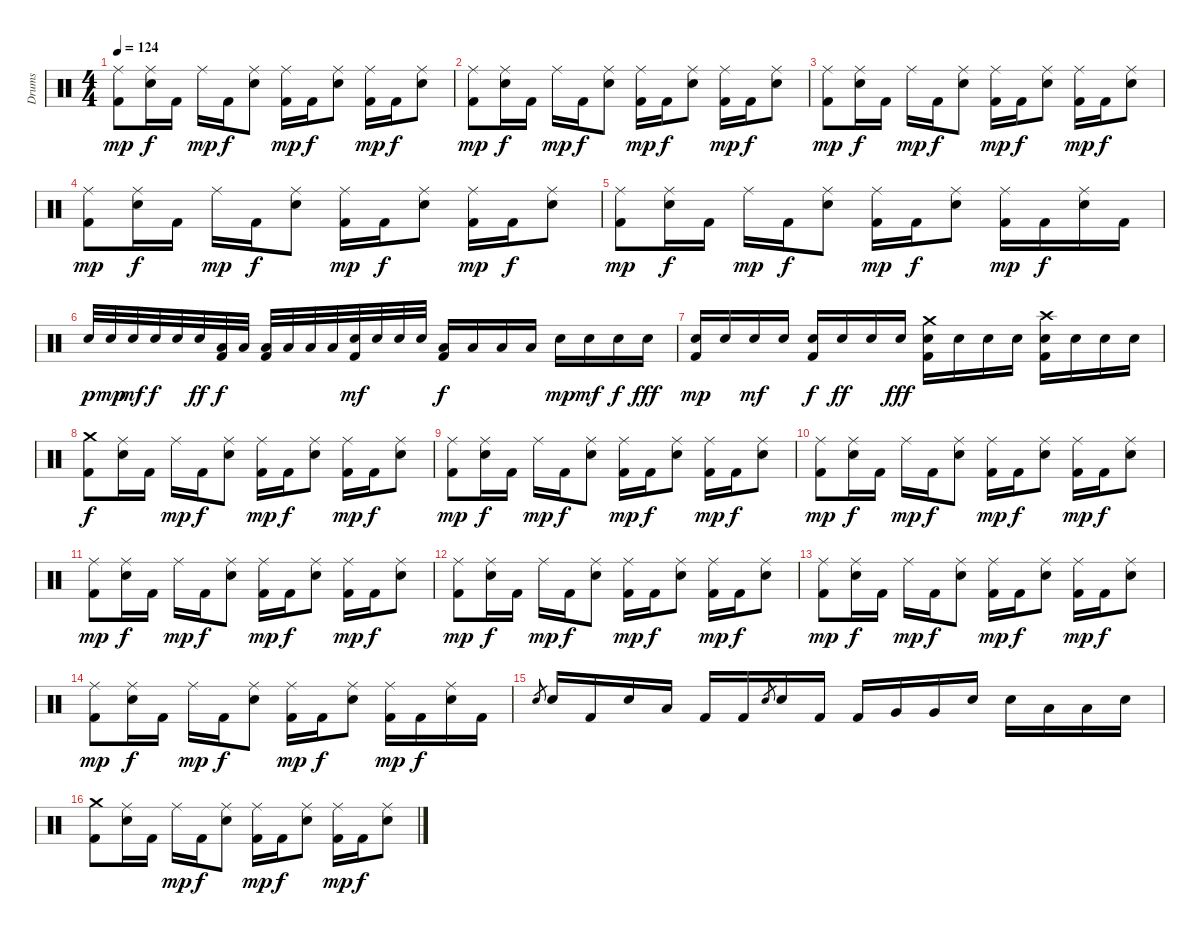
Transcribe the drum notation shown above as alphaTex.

\track ("Drums" "Drums") {instrument percussion}
\staff {score}
\articulation defaults
\ts (4 4)
\tempo 124
\clef neutral
\ks c
("Ride (middle)" "Kick (hit) 2").8{dy mp} ("Ride (middle)" "Snare (hit) 2").16{dy f} "Kick (hit) 2".16 "Ride (middle)".16{dy mp} "Kick (hit) 2".16{dy f} ("Ride (middle)" "Snare (hit) 2").8 ("Ride (middle)" "Kick (hit) 2").16{dy mp} "Kick (hit) 2".16{dy f} ("Ride (middle)" "Snare (hit) 2").8 ("Ride (middle)" "Kick (hit) 2").16{dy mp} "Kick (hit) 2".16{dy f} ("Ride (middle)" "Snare (hit) 2").8 |
("Ride (middle)" "Kick (hit) 2").8{dy mp} ("Ride (middle)" "Snare (hit) 2").16{dy f} "Kick (hit) 2".16 "Ride (middle)".16{dy mp} "Kick (hit) 2".16{dy f} ("Ride (middle)" "Snare (hit) 2").8 ("Ride (middle)" "Kick (hit) 2").16{dy mp} "Kick (hit) 2".16{dy f} ("Ride (middle)" "Snare (hit) 2").8 ("Ride (middle)" "Kick (hit) 2").16{dy mp} "Kick (hit) 2".16{dy f} ("Ride (middle)" "Snare (hit) 2").8 |
("Ride (middle)" "Kick (hit) 2").8{dy mp} ("Ride (middle)" "Snare (hit) 2").16{dy f} "Kick (hit) 2".16 "Ride (middle)".16{dy mp} "Kick (hit) 2".16{dy f} ("Ride (middle)" "Snare (hit) 2").8 ("Ride (middle)" "Kick (hit) 2").16{dy mp} "Kick (hit) 2".16{dy f} ("Ride (middle)" "Snare (hit) 2").8 ("Ride (middle)" "Kick (hit) 2").16{dy mp} "Kick (hit) 2".16{dy f} ("Ride (middle)" "Snare (hit) 2").8 |
("Ride (middle)" "Kick (hit) 2").8{dy mp} ("Ride (middle)" "Snare (hit) 2").16{dy f} "Kick (hit) 2".16 "Ride (middle)".16{dy mp} "Kick (hit) 2".16{dy f} ("Ride (middle)" "Snare (hit) 2").8 ("Ride (middle)" "Kick (hit) 2").16{dy mp} "Kick (hit) 2".16{dy f} ("Ride (middle)" "Snare (hit) 2").8 ("Ride (middle)" "Kick (hit) 2").16{dy mp} "Kick (hit) 2".16{dy f} ("Ride (middle)" "Snare (hit) 2").8 |
("Ride (middle)" "Kick (hit) 2").8{dy mp} ("Ride (middle)" "Snare (hit) 2").16{dy f} "Kick (hit) 2".16 "Ride (middle)".16{dy mp} "Kick (hit) 2".16{dy f} ("Ride (middle)" "Snare (hit) 2").8 ("Ride (middle)" "Kick (hit) 2").16{dy mp} "Kick (hit) 2".16{dy f} ("Ride (middle)" "Snare (hit) 2").8 ("Ride (middle)" "Kick (hit) 2").16{dy mp} "Kick (hit) 2".16{dy f} ("Ride (middle)" "Snare (hit) 2").16 "Kick (hit) 2".16 |
"Snare (hit) 2".32{dy p} "Snare (hit) 2".32{dy mp} "Snare (hit) 2".32{dy mf} "Snare (hit) 2".32{dy f} "Snare (hit) 2".32 "Snare (hit) 2".32{dy ff} ("Low Tom (hit)" "Kick (hit) 2").32{dy f} "Low Tom (hit)".32 ("Low Tom (hit)" "Kick (hit) 2").32 "Low Tom (hit)".32 "Low Tom (hit)".32 "Low Tom (hit)".32 ("Snare (hit) 2" "Kick (hit) 2").32{dy mf} "Snare (hit) 2".32 "Snare (hit) 2".32 "Snare (hit) 2".32 ("Low Tom (hit)" "Kick (hit) 2").16{dy f} "Low Tom (hit)".16 "Low Tom (hit)".16 "Low Tom (hit)".16 "Snare (hit) 2".16{dy mp} "Snare (hit) 2".16{dy mf} "Snare (hit) 2".16{dy f} "Snare (hit) 2".16{dy fff} |
("Snare (hit) 2" "Kick (hit) 2").16{dy mp} "Snare (hit) 2".16 "Snare (hit) 2".16{dy mf} "Snare (hit) 2".16 ("Snare (hit) 2" "Kick (hit) 2").16{dy f} "Snare (hit) 2".16{dy ff} "Snare (hit) 2".16 "Snare (hit) 2".16{dy fff} ("Crash medium (hit)" "Snare (hit) 2" "Kick (hit) 2").16 "Snare (hit) 2".16 "Snare (hit) 2".16 "Snare (hit) 2".16 ("Crash high (hit)" "Snare (hit) 2" "Kick (hit) 2").16 "Snare (hit) 2".16 "Snare (hit) 2".16 "Snare (hit) 2".16 |
("Crash medium (hit)" "Kick (hit) 2").8{dy f} ("Ride (middle)" "Snare (hit) 2").16 "Kick (hit) 2".16 "Ride (middle)".16{dy mp} "Kick (hit) 2".16{dy f} ("Ride (middle)" "Snare (hit) 2").8 ("Ride (middle)" "Kick (hit) 2").16{dy mp} "Kick (hit) 2".16{dy f} ("Ride (middle)" "Snare (hit) 2").8 ("Ride (middle)" "Kick (hit) 2").16{dy mp} "Kick (hit) 2".16{dy f} ("Ride (middle)" "Snare (hit) 2").8 |
("Ride (middle)" "Kick (hit) 2").8{dy mp} ("Ride (middle)" "Snare (hit) 2").16{dy f} "Kick (hit) 2".16 "Ride (middle)".16{dy mp} "Kick (hit) 2".16{dy f} ("Ride (middle)" "Snare (hit) 2").8 ("Ride (middle)" "Kick (hit) 2").16{dy mp} "Kick (hit) 2".16{dy f} ("Ride (middle)" "Snare (hit) 2").8 ("Ride (middle)" "Kick (hit) 2").16{dy mp} "Kick (hit) 2".16{dy f} ("Ride (middle)" "Snare (hit) 2").8 |
("Ride (middle)" "Kick (hit) 2").8{dy mp} ("Ride (middle)" "Snare (hit) 2").16{dy f} "Kick (hit) 2".16 "Ride (middle)".16{dy mp} "Kick (hit) 2".16{dy f} ("Ride (middle)" "Snare (hit) 2").8 ("Ride (middle)" "Kick (hit) 2").16{dy mp} "Kick (hit) 2".16{dy f} ("Ride (middle)" "Snare (hit) 2").8 ("Ride (middle)" "Kick (hit) 2").16{dy mp} "Kick (hit) 2".16{dy f} ("Ride (middle)" "Snare (hit) 2").8 |
("Ride (middle)" "Kick (hit) 2").8{dy mp} ("Ride (middle)" "Snare (hit) 2").16{dy f} "Kick (hit) 2".16 "Ride (middle)".16{dy mp} "Kick (hit) 2".16{dy f} ("Ride (middle)" "Snare (hit) 2").8 ("Ride (middle)" "Kick (hit) 2").16{dy mp} "Kick (hit) 2".16{dy f} ("Ride (middle)" "Snare (hit) 2").8 ("Ride (middle)" "Kick (hit) 2").16{dy mp} "Kick (hit) 2".16{dy f} ("Ride (middle)" "Snare (hit) 2").8 |
("Ride (middle)" "Kick (hit) 2").8{dy mp} ("Ride (middle)" "Snare (hit) 2").16{dy f} "Kick (hit) 2".16 "Ride (middle)".16{dy mp} "Kick (hit) 2".16{dy f} ("Ride (middle)" "Snare (hit) 2").8 ("Ride (middle)" "Kick (hit) 2").16{dy mp} "Kick (hit) 2".16{dy f} ("Ride (middle)" "Snare (hit) 2").8 ("Ride (middle)" "Kick (hit) 2").16{dy mp} "Kick (hit) 2".16{dy f} ("Ride (middle)" "Snare (hit) 2").8 |
("Ride (middle)" "Kick (hit) 2").8{dy mp} ("Ride (middle)" "Snare (hit) 2").16{dy f} "Kick (hit) 2".16 "Ride (middle)".16{dy mp} "Kick (hit) 2".16{dy f} ("Ride (middle)" "Snare (hit) 2").8 ("Ride (middle)" "Kick (hit) 2").16{dy mp} "Kick (hit) 2".16{dy f} ("Ride (middle)" "Snare (hit) 2").8 ("Ride (middle)" "Kick (hit) 2").16{dy mp} "Kick (hit) 2".16{dy f} ("Ride (middle)" "Snare (hit) 2").8 |
("Ride (middle)" "Kick (hit) 2").8{dy mp} ("Ride (middle)" "Snare (hit) 2").16{dy f} "Kick (hit) 2".16 "Ride (middle)".16{dy mp} "Kick (hit) 2".16{dy f} ("Ride (middle)" "Snare (hit) 2").8 ("Ride (middle)" "Kick (hit) 2").16{dy mp} "Kick (hit) 2".16{dy f} ("Ride (middle)" "Snare (hit) 2").8 ("Ride (middle)" "Kick (hit) 2").16{dy mp} "Kick (hit) 2".16{dy f} ("Ride (middle)" "Snare (hit) 2").16 "Kick (hit) 2".16 |
"Snare (hit) 2".8{gr} "Snare (hit) 2".16 "Kick (hit) 2".16 "Snare (hit) 2".16 "Low Tom (hit)".16 "Kick (hit) 2".16 "Kick (hit) 2".16 "Snare (hit) 2".8{gr} "Snare (hit) 2".16 "Kick (hit) 2".16 "Kick (hit) 2".16 "Very Low Tom (hit)".16 "Very Low Tom (hit)".16 "Snare (hit) 2".16 "Snare (hit) 2".16 "Low Tom (hit)".16 "Low Tom (hit)".16 "Snare (hit) 2".16 |
("Crash medium (hit)" "Kick (hit) 2").8 ("Ride (middle)" "Snare (hit) 2").16 "Kick (hit) 2".16 "Ride (middle)".16{dy mp} "Kick (hit) 2".16{dy f} ("Ride (middle)" "Snare (hit) 2").8 ("Ride (middle)" "Kick (hit) 2").16{dy mp} "Kick (hit) 2".16{dy f} ("Ride (middle)" "Snare (hit) 2").8 ("Ride (middle)" "Kick (hit) 2").16{dy mp} "Kick (hit) 2".16{dy f} ("Ride (middle)" "Snare (hit) 2").8
